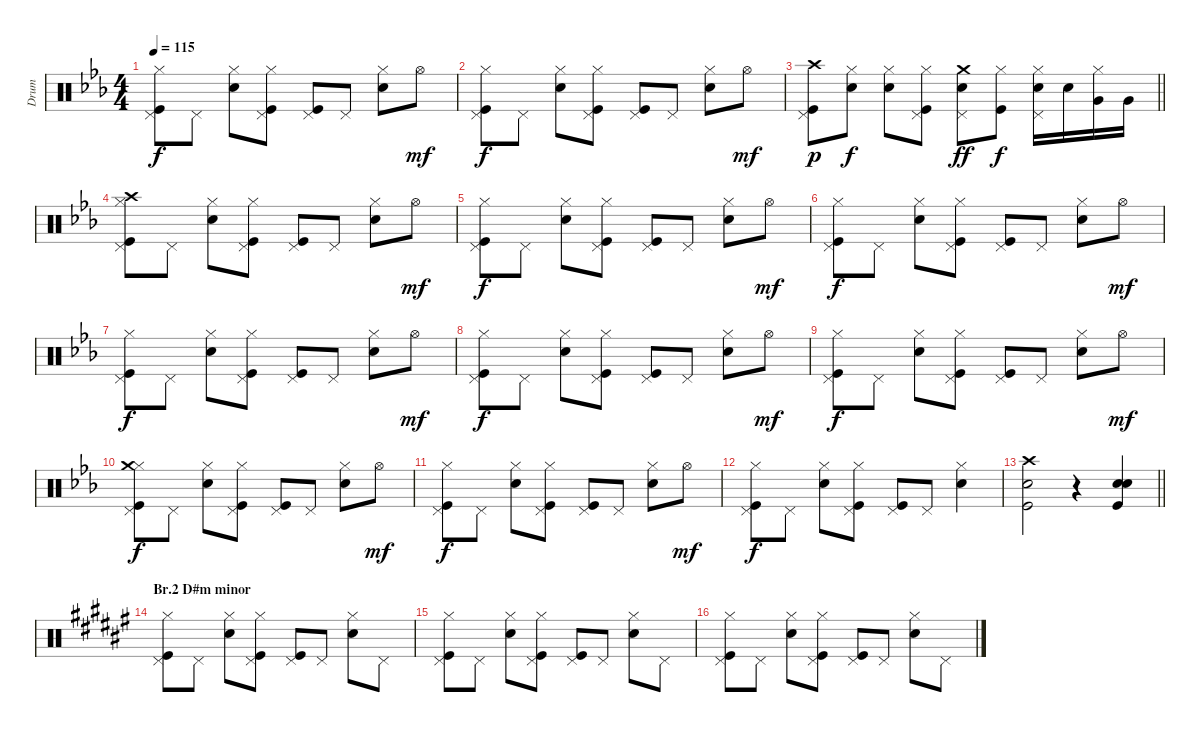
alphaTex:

\track ("Drum" "Drum") {instrument percussion}
\staff {score}
\articulation defaults
\ts (4 4)
\tempo 115
\clef neutral
\ks eb
("Hi-Hat (closed)" "Pedal Hi-Hat (hit)" "Kick (hit)").8{dy f} "Pedal Hi-Hat (hit)".8 ("Hi-Hat (closed)" "Snare (hit) 2").8 ("Hi-Hat (closed)" "Pedal Hi-Hat (hit)" "Kick (hit)").8 ("Kick (hit)" "Pedal Hi-Hat (hit)").8 "Pedal Hi-Hat (hit)".8 ("Hi-Hat (closed)" "Snare (hit) 2").8 "Hi-Hat (open)".8{dy mf} |
("Hi-Hat (closed)" "Pedal Hi-Hat (hit)" "Kick (hit)").8{dy f} "Pedal Hi-Hat (hit)".8 ("Hi-Hat (closed)" "Snare (hit) 2").8 ("Hi-Hat (closed)" "Pedal Hi-Hat (hit)" "Kick (hit)").8 ("Kick (hit)" "Pedal Hi-Hat (hit)").8 "Pedal Hi-Hat (hit)".8 ("Hi-Hat (closed)" "Snare (hit) 2").8 "Hi-Hat (open)".8{dy mf} |
\barLineRight lightlight
("Pedal Hi-Hat (hit)" "Kick (hit)" "Crash high (hit)").8{dy p} ("Hi-Hat (closed)" "Snare (hit) 2").8{dy f} ("Hi-Hat (closed)" "Snare (hit) 2").8 ("Hi-Hat (closed)" "Pedal Hi-Hat (hit)" "Kick (hit)").8 ("Pedal Hi-Hat (hit)" "Snare (hit) 2" "Crash medium (hit)").8{dy ff} ("Hi-Hat (closed)" "Kick (hit)").8{dy f} ("Hi-Hat (closed)" "Pedal Hi-Hat (hit)" "Snare (hit) 2").16 "Snare (hit) 2".16 ("Hi-Hat (closed)" "Very Low Tom (hit)").16 "Very Low Tom (hit)".16 |
("Hi-Hat (closed)" "Pedal Hi-Hat (hit)" "Kick (hit)" "Crash high (hit)").8 "Pedal Hi-Hat (hit)".8 ("Hi-Hat (closed)" "Snare (hit) 2").8 ("Hi-Hat (closed)" "Pedal Hi-Hat (hit)" "Kick (hit)").8 ("Kick (hit)" "Pedal Hi-Hat (hit)").8 "Pedal Hi-Hat (hit)".8 ("Hi-Hat (closed)" "Snare (hit) 2").8 "Hi-Hat (open)".8{dy mf} |
("Hi-Hat (closed)" "Pedal Hi-Hat (hit)" "Kick (hit)").8{dy f} "Pedal Hi-Hat (hit)".8 ("Hi-Hat (closed)" "Snare (hit) 2").8 ("Hi-Hat (closed)" "Pedal Hi-Hat (hit)" "Kick (hit)").8 ("Kick (hit)" "Pedal Hi-Hat (hit)").8 "Pedal Hi-Hat (hit)".8 ("Hi-Hat (closed)" "Snare (hit) 2").8 "Hi-Hat (open)".8{dy mf} |
("Hi-Hat (closed)" "Pedal Hi-Hat (hit)" "Kick (hit)").8{dy f} "Pedal Hi-Hat (hit)".8 ("Hi-Hat (closed)" "Snare (hit) 2").8 ("Hi-Hat (closed)" "Pedal Hi-Hat (hit)" "Kick (hit)").8 ("Kick (hit)" "Pedal Hi-Hat (hit)").8 "Pedal Hi-Hat (hit)".8 ("Hi-Hat (closed)" "Snare (hit) 2").8 "Hi-Hat (open)".8{dy mf} |
("Hi-Hat (closed)" "Pedal Hi-Hat (hit)" "Kick (hit)").8{dy f} "Pedal Hi-Hat (hit)".8 ("Hi-Hat (closed)" "Snare (hit) 2").8 ("Hi-Hat (closed)" "Pedal Hi-Hat (hit)" "Kick (hit)").8 ("Kick (hit)" "Pedal Hi-Hat (hit)").8 "Pedal Hi-Hat (hit)".8 ("Hi-Hat (closed)" "Snare (hit) 2").8 "Hi-Hat (open)".8{dy mf} |
("Hi-Hat (closed)" "Pedal Hi-Hat (hit)" "Kick (hit)").8{dy f} "Pedal Hi-Hat (hit)".8 ("Hi-Hat (closed)" "Snare (hit) 2").8 ("Hi-Hat (closed)" "Pedal Hi-Hat (hit)" "Kick (hit)").8 ("Kick (hit)" "Pedal Hi-Hat (hit)").8 "Pedal Hi-Hat (hit)".8 ("Hi-Hat (closed)" "Snare (hit) 2").8 "Hi-Hat (open)".8{dy mf} |
("Hi-Hat (closed)" "Pedal Hi-Hat (hit)" "Kick (hit)").8{dy f} "Pedal Hi-Hat (hit)".8 ("Hi-Hat (closed)" "Snare (hit) 2").8 ("Hi-Hat (closed)" "Pedal Hi-Hat (hit)" "Kick (hit)").8 ("Kick (hit)" "Pedal Hi-Hat (hit)").8 "Pedal Hi-Hat (hit)".8 ("Hi-Hat (closed)" "Snare (hit) 2").8 "Hi-Hat (open)".8{dy mf} |
("Hi-Hat (closed)" "Pedal Hi-Hat (hit)" "Kick (hit)" "Crash medium (hit)").8{dy f} "Pedal Hi-Hat (hit)".8 ("Hi-Hat (closed)" "Snare (hit) 2").8 ("Hi-Hat (closed)" "Pedal Hi-Hat (hit)" "Kick (hit)").8 ("Kick (hit)" "Pedal Hi-Hat (hit)").8 "Pedal Hi-Hat (hit)".8 ("Hi-Hat (closed)" "Snare (hit) 2").8 "Hi-Hat (open)".8{dy mf} |
("Hi-Hat (closed)" "Pedal Hi-Hat (hit)" "Kick (hit)").8{dy f} "Pedal Hi-Hat (hit)".8 ("Hi-Hat (closed)" "Snare (hit) 2").8 ("Hi-Hat (closed)" "Pedal Hi-Hat (hit)" "Kick (hit)").8 ("Kick (hit)" "Pedal Hi-Hat (hit)").8 "Pedal Hi-Hat (hit)".8 ("Hi-Hat (closed)" "Snare (hit) 2").8 "Hi-Hat (open)".8{dy mf} |
("Hi-Hat (closed)" "Pedal Hi-Hat (hit)" "Kick (hit)").8{dy f} "Pedal Hi-Hat (hit)".8 ("Hi-Hat (closed)" "Snare (hit) 2").8 ("Hi-Hat (closed)" "Pedal Hi-Hat (hit)" "Kick (hit)").8 ("Kick (hit)" "Pedal Hi-Hat (hit)").8 "Pedal Hi-Hat (hit)".8 ("Hi-Hat (closed)" "Snare (hit) 2").4 |
\barLineRight lightlight
("Kick (hit)" "Snare (hit) 2" "Crash high (hit)").2 r.4 ("Snare (hit) 2" "Electric Snare (hit)" "Kick (hit)").4 |
\section ("" "Br.2 D#m minor")
\ks d#minor
("Hi-Hat (closed)" "Pedal Hi-Hat (hit)" "Kick (hit)").8 "Pedal Hi-Hat (hit)".8 ("Hi-Hat (closed)" "Snare (hit) 2").8 ("Hi-Hat (closed)" "Pedal Hi-Hat (hit)" "Kick (hit)").8 ("Kick (hit)" "Pedal Hi-Hat (hit)").8 "Pedal Hi-Hat (hit)".8 ("Hi-Hat (closed)" "Snare (hit) 2").8 "Pedal Hi-Hat (hit)".8 |
("Hi-Hat (closed)" "Pedal Hi-Hat (hit)" "Kick (hit)").8 "Pedal Hi-Hat (hit)".8 ("Hi-Hat (closed)" "Snare (hit) 2").8 ("Hi-Hat (closed)" "Pedal Hi-Hat (hit)" "Kick (hit)").8 ("Kick (hit)" "Pedal Hi-Hat (hit)").8 "Pedal Hi-Hat (hit)".8 ("Hi-Hat (closed)" "Snare (hit) 2").8 "Pedal Hi-Hat (hit)".8 |
("Hi-Hat (closed)" "Pedal Hi-Hat (hit)" "Kick (hit)").8 "Pedal Hi-Hat (hit)".8 ("Hi-Hat (closed)" "Snare (hit) 2").8 ("Hi-Hat (closed)" "Pedal Hi-Hat (hit)" "Kick (hit)").8 ("Kick (hit)" "Pedal Hi-Hat (hit)").8 "Pedal Hi-Hat (hit)".8 ("Hi-Hat (closed)" "Snare (hit) 2").8 "Pedal Hi-Hat (hit)".8
